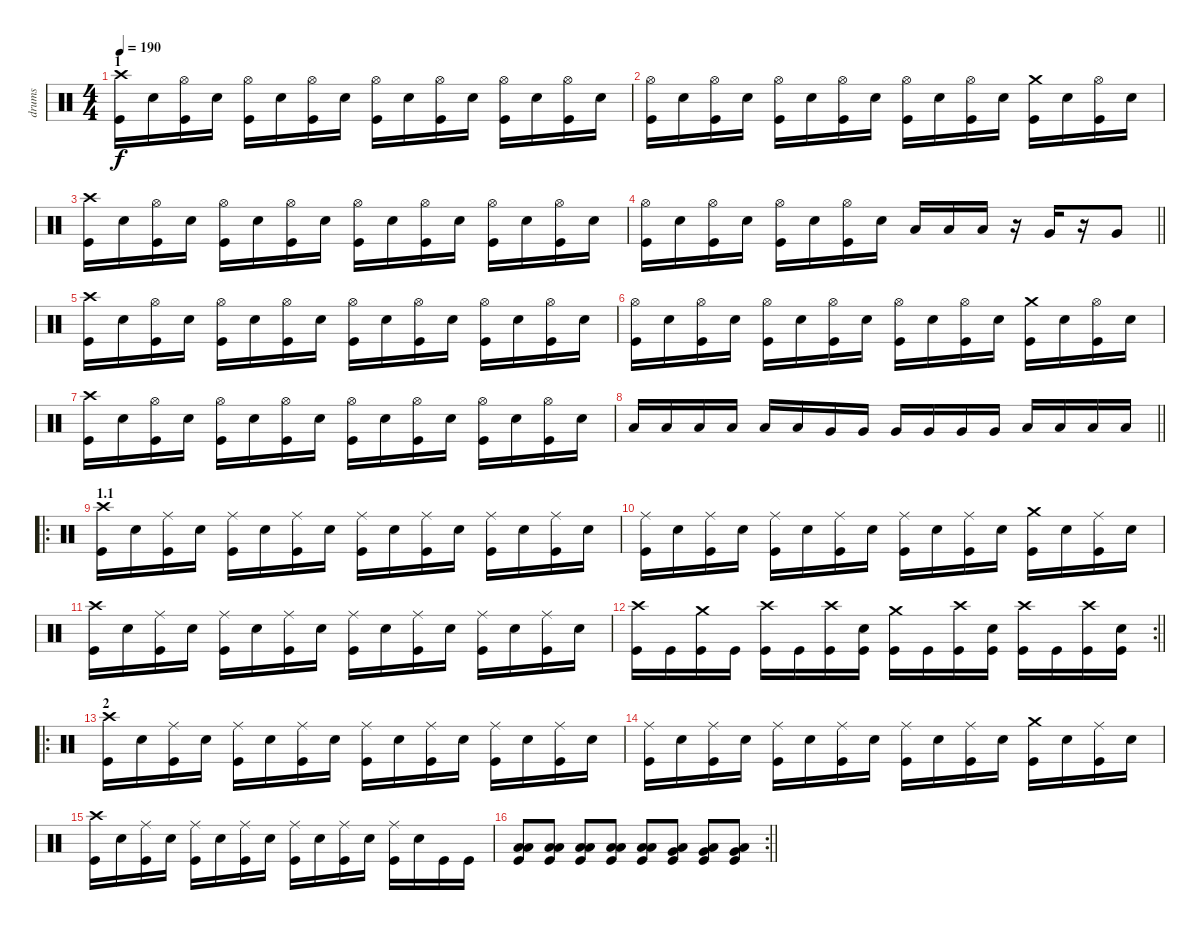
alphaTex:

\track ("drums" "drums") {instrument percussion}
\staff {score}
\articulation defaults
\ts (4 4)
\section ("" "1")
\tempo 190
\clef neutral
\ks c
("Kick (hit)" "Crash high (hit)").16{dy f} "Electric Snare (hit)".16 ("Kick (hit)" "Hi-Hat (open)").16 "Electric Snare (hit)".16 ("Kick (hit)" "Hi-Hat (open)").16 "Electric Snare (hit)".16 ("Kick (hit)" "Hi-Hat (open)").16 "Electric Snare (hit)".16 ("Kick (hit)" "Hi-Hat (open)").16 "Electric Snare (hit)".16 ("Kick (hit)" "Hi-Hat (open)").16 "Electric Snare (hit)".16 ("Kick (hit)" "Hi-Hat (open)").16 "Electric Snare (hit)".16 ("Kick (hit)" "Hi-Hat (open)").16 "Electric Snare (hit)".16 |
("Kick (hit)" "Hi-Hat (open)").16 "Electric Snare (hit)".16 ("Kick (hit)" "Hi-Hat (open)").16 "Electric Snare (hit)".16 ("Kick (hit)" "Hi-Hat (open)").16 "Electric Snare (hit)".16 ("Kick (hit)" "Hi-Hat (open)").16 "Electric Snare (hit)".16 ("Kick (hit)" "Hi-Hat (open)").16 "Electric Snare (hit)".16 ("Kick (hit)" "Hi-Hat (open)").16 "Electric Snare (hit)".16 ("Kick (hit)" "Crash medium (hit)").16 "Electric Snare (hit)".16 ("Kick (hit)" "Hi-Hat (open)").16 "Electric Snare (hit)".16 |
("Kick (hit)" "Crash high (hit)").16 "Electric Snare (hit)".16 ("Kick (hit)" "Hi-Hat (open)").16 "Electric Snare (hit)".16 ("Kick (hit)" "Hi-Hat (open)").16 "Electric Snare (hit)".16 ("Kick (hit)" "Hi-Hat (open)").16 "Electric Snare (hit)".16 ("Kick (hit)" "Hi-Hat (open)").16 "Electric Snare (hit)".16 ("Kick (hit)" "Hi-Hat (open)").16 "Electric Snare (hit)".16 ("Kick (hit)" "Hi-Hat (open)").16 "Electric Snare (hit)".16 ("Kick (hit)" "Hi-Hat (open)").16 "Electric Snare (hit)".16 |
\barLineRight lightlight
("Kick (hit)" "Hi-Hat (open)").16 "Electric Snare (hit)".16 ("Kick (hit)" "Hi-Hat (open)").16 "Electric Snare (hit)".16 ("Kick (hit)" "Hi-Hat (open)").16 "Electric Snare (hit)".16 ("Kick (hit)" "Hi-Hat (open)").16 "Electric Snare (hit)".16 "Low Tom (hit)".16 "Low Tom (hit)".16 "Low Tom (hit)".16 r.16 "Very Low Tom (hit)".16 r.16 "Very Low Tom (hit)".8 |
("Kick (hit)" "Crash high (hit)").16 "Electric Snare (hit)".16 ("Kick (hit)" "Hi-Hat (open)").16 "Electric Snare (hit)".16 ("Kick (hit)" "Hi-Hat (open)").16 "Electric Snare (hit)".16 ("Kick (hit)" "Hi-Hat (open)").16 "Electric Snare (hit)".16 ("Kick (hit)" "Hi-Hat (open)").16 "Electric Snare (hit)".16 ("Kick (hit)" "Hi-Hat (open)").16 "Electric Snare (hit)".16 ("Kick (hit)" "Hi-Hat (open)").16 "Electric Snare (hit)".16 ("Kick (hit)" "Hi-Hat (open)").16 "Electric Snare (hit)".16 |
("Kick (hit)" "Hi-Hat (open)").16 "Electric Snare (hit)".16 ("Kick (hit)" "Hi-Hat (open)").16 "Electric Snare (hit)".16 ("Kick (hit)" "Hi-Hat (open)").16 "Electric Snare (hit)".16 ("Kick (hit)" "Hi-Hat (open)").16 "Electric Snare (hit)".16 ("Kick (hit)" "Hi-Hat (open)").16 "Electric Snare (hit)".16 ("Kick (hit)" "Hi-Hat (open)").16 "Electric Snare (hit)".16 ("Kick (hit)" "Crash medium (hit)").16 "Electric Snare (hit)".16 ("Kick (hit)" "Hi-Hat (open)").16 "Electric Snare (hit)".16 |
("Kick (hit)" "Crash high (hit)").16 "Electric Snare (hit)".16 ("Kick (hit)" "Hi-Hat (open)").16 "Electric Snare (hit)".16 ("Kick (hit)" "Hi-Hat (open)").16 "Electric Snare (hit)".16 ("Kick (hit)" "Hi-Hat (open)").16 "Electric Snare (hit)".16 ("Kick (hit)" "Hi-Hat (open)").16 "Electric Snare (hit)".16 ("Kick (hit)" "Hi-Hat (open)").16 "Electric Snare (hit)".16 ("Kick (hit)" "Hi-Hat (open)").16 "Electric Snare (hit)".16 ("Kick (hit)" "Hi-Hat (open)").16 "Electric Snare (hit)".16 |
\barLineRight lightlight "Low Tom (hit)".16 "Low Tom (hit)".16 "Low Tom (hit)".16 "Low Tom (hit)".16 "Low Tom (hit)".16 "Low Tom (hit)".16 "Very Low Tom (hit)".16 "Very Low Tom (hit)".16 "Very Low Tom (hit)".16 "Very Low Tom (hit)".16 "Very Low Tom (hit)".16 "Very Low Tom (hit)".16 "Low Floor Tom (hit)".16 "Low Floor Tom (hit)".16 "Low Floor Tom (hit)".16 "Low Floor Tom (hit)".16
|
\ro
\section ("" "1.1")
("Kick (hit)" "Crash high (hit)").16 "Electric Snare (hit)".16 ("Kick (hit)" "Ride (middle)").16 "Electric Snare (hit)".16 ("Kick (hit)" "Ride (middle)").16 "Electric Snare (hit)".16 ("Kick (hit)" "Ride (middle)").16 "Electric Snare (hit)".16 ("Kick (hit)" "Ride (middle)").16 "Electric Snare (hit)".16 ("Kick (hit)" "Ride (middle)").16 "Electric Snare (hit)".16 ("Kick (hit)" "Ride (middle)").16 "Electric Snare (hit)".16 ("Kick (hit)" "Ride (middle)").16 "Electric Snare (hit)".16 |
("Kick (hit)" "Ride (middle)").16 "Electric Snare (hit)".16 ("Kick (hit)" "Ride (middle)").16 "Electric Snare (hit)".16 ("Kick (hit)" "Ride (middle)").16 "Electric Snare (hit)".16 ("Kick (hit)" "Ride (middle)").16 "Electric Snare (hit)".16 ("Kick (hit)" "Ride (middle)").16 "Electric Snare (hit)".16 ("Kick (hit)" "Ride (middle)").16 "Electric Snare (hit)".16 ("Kick (hit)" "Crash medium (hit)").16 "Electric Snare (hit)".16 ("Kick (hit)" "Ride (middle)").16 "Electric Snare (hit)".16 |
("Kick (hit)" "Crash high (hit)").16 "Electric Snare (hit)".16 ("Kick (hit)" "Ride (middle)").16 "Electric Snare (hit)".16 ("Kick (hit)" "Ride (middle)").16 "Electric Snare (hit)".16 ("Kick (hit)" "Ride (middle)").16 "Electric Snare (hit)".16 ("Kick (hit)" "Ride (middle)").16 "Electric Snare (hit)".16 ("Kick (hit)" "Ride (middle)").16 "Electric Snare (hit)".16 ("Kick (hit)" "Ride (middle)").16 "Electric Snare (hit)".16 ("Kick (hit)" "Ride (middle)").16 "Electric Snare (hit)".16 |
\rc 2
\barLineRight lightlight
("Kick (hit)" "Crash high (hit)").16 "Kick (hit)".16 ("Kick (hit)" "Crash medium (hit)").16 "Kick (hit)".16 ("Kick (hit)" "Crash high (hit)").16 "Kick (hit)".16 ("Kick (hit)" "Crash high (hit)").16 ("Kick (hit)" "Electric Snare (hit)").16 ("Kick (hit)" "Crash medium (hit)").16 "Kick (hit)".16 ("Kick (hit)" "Crash high (hit)").16 ("Kick (hit)" "Electric Snare (hit)").16 ("Kick (hit)" "Crash high (hit)").16 "Kick (hit)".16 ("Kick (hit)" "Crash high (hit)").16 ("Kick (hit)" "Electric Snare (hit)").16 |
\ro
\section ("" "2")
("Kick (hit)" "Crash high (hit)").16 "Electric Snare (hit)".16 ("Kick (hit)" "Ride (middle)").16 "Electric Snare (hit)".16 ("Kick (hit)" "Ride (middle)").16 "Electric Snare (hit)".16 ("Kick (hit)" "Ride (middle)").16 "Electric Snare (hit)".16 ("Kick (hit)" "Ride (middle)").16 "Electric Snare (hit)".16 ("Kick (hit)" "Ride (middle)").16 "Electric Snare (hit)".16 ("Kick (hit)" "Ride (middle)").16 "Electric Snare (hit)".16 ("Kick (hit)" "Ride (middle)").16 "Electric Snare (hit)".16 |
("Kick (hit)" "Ride (middle)").16 "Electric Snare (hit)".16 ("Kick (hit)" "Ride (middle)").16 "Electric Snare (hit)".16 ("Kick (hit)" "Ride (middle)").16 "Electric Snare (hit)".16 ("Kick (hit)" "Ride (middle)").16 "Electric Snare (hit)".16 ("Kick (hit)" "Ride (middle)").16 "Electric Snare (hit)".16 ("Kick (hit)" "Ride (middle)").16 "Electric Snare (hit)".16 ("Kick (hit)" "Crash medium (hit)").16 "Electric Snare (hit)".16 ("Kick (hit)" "Ride (middle)").16 "Electric Snare (hit)".16 |
("Kick (hit)" "Crash high (hit)").16 "Electric Snare (hit)".16 ("Kick (hit)" "Ride (middle)").16 "Electric Snare (hit)".16 ("Kick (hit)" "Ride (middle)").16 "Electric Snare (hit)".16 ("Kick (hit)" "Ride (middle)").16 "Electric Snare (hit)".16 ("Kick (hit)" "Ride (middle)").16 "Electric Snare (hit)".16 ("Kick (hit)" "Ride (middle)").16 "Electric Snare (hit)".16 ("Kick (hit)" "Ride (middle)").16 "Electric Snare (hit)".16 "Kick (hit)".16 "Kick (hit)".16 |
\rc 2
\barLineRight lightlight
("Kick (hit)" "Low Tom (hit)" "Low Floor Tom (hit)").8 ("Kick (hit)" "Low Tom (hit)" "Low Floor Tom (hit)").8 ("Kick (hit)" "Low Tom (hit)" "Low Floor Tom (hit)").8 ("Kick (hit)" "Low Tom (hit)" "Low Floor Tom (hit)").8 ("Kick (hit)" "Low Tom (hit)" "Low Floor Tom (hit)").8 ("Kick (hit)" "Very Low Tom (hit)" "Low Floor Tom (hit)").8 ("Kick (hit)" "Very Low Tom (hit)" "Low Floor Tom (hit)").8 ("Kick (hit)" "Very Low Tom (hit)" "Low Floor Tom (hit)").8
